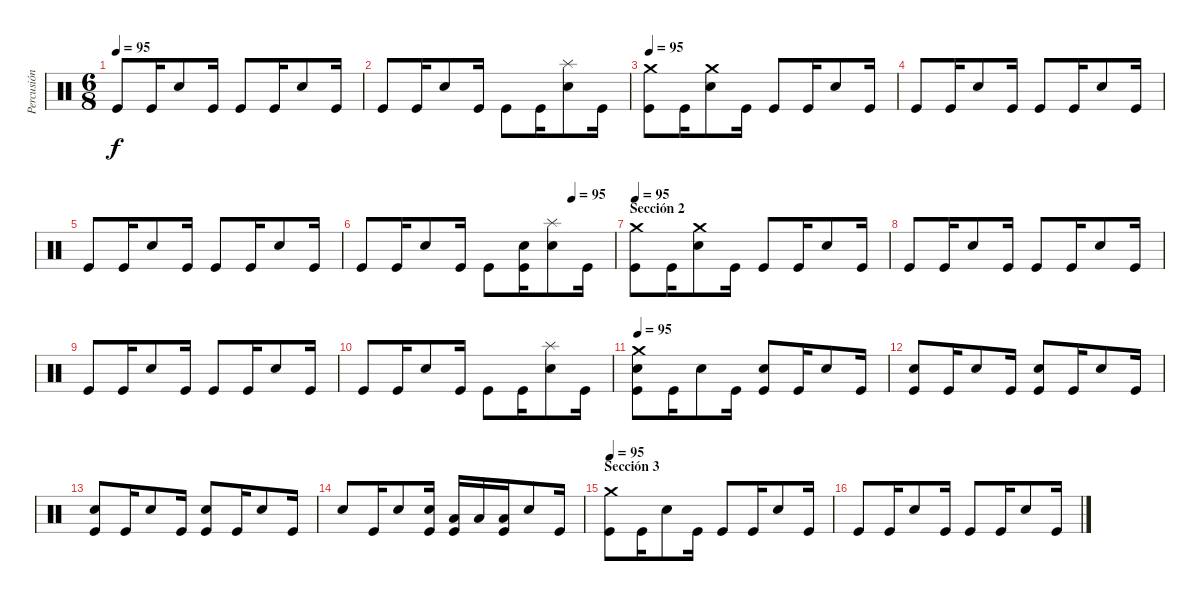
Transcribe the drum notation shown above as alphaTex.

\track ("Percusión" "Percusión") {instrument percussion}
\staff {score}
\articulation defaults
\ts (6 8)
\tempo 95
\clef neutral
\ks c "Kick (hit)".8{dy f} "Kick (hit)".16 "Electric Snare (hit)".8 "Kick (hit)".16 "Kick (hit)".8 "Kick (hit)".16 "Electric Snare (hit)".8 "Kick (hit)".16
|
"Kick (hit)".8 "Kick (hit)".16 "Electric Snare (hit)".8 "Kick (hit)".16 "Kick (hit)".8 "Kick (hit)".16 ("Splash (hit)" "Electric Snare (hit)").8 "Kick (hit)".16 |
\tempo 95
("Crash medium (hit)" "Kick (hit)").8 "Kick (hit)".16 ("Crash medium (hit)" "Electric Snare (hit)").8 "Kick (hit)".16 "Kick (hit)".8 "Kick (hit)".16 "Electric Snare (hit)".8 "Kick (hit)".16 |
"Kick (hit)".8 "Kick (hit)".16 "Electric Snare (hit)".8 "Kick (hit)".16 "Kick (hit)".8 "Kick (hit)".16 "Electric Snare (hit)".8 "Kick (hit)".16 |
"Kick (hit)".8 "Kick (hit)".16 "Electric Snare (hit)".8 "Kick (hit)".16 "Kick (hit)".8 "Kick (hit)".16 "Electric Snare (hit)".8 "Kick (hit)".16 |
\tempo (95 0.8333333333333334)
"Kick (hit)".8 "Kick (hit)".16 "Electric Snare (hit)".8 "Kick (hit)".16 "Kick (hit)".8 ("Electric Snare (hit)" "Kick (hit)").16 ("Splash (hit)" "Electric Snare (hit)").8 "Kick (hit)".16 |
\section ("" "Sección 2")
\tempo 95
("Crash medium (hit)" "Kick (hit)").8 "Kick (hit)".16 ("Crash medium (hit)" "Electric Snare (hit)").8 "Kick (hit)".16 "Kick (hit)".8 "Kick (hit)".16 "Electric Snare (hit)".8 "Kick (hit)".16 |
"Kick (hit)".8 "Kick (hit)".16 "Electric Snare (hit)".8 "Kick (hit)".16 "Kick (hit)".8 "Kick (hit)".16 "Electric Snare (hit)".8 "Kick (hit)".16 |
"Kick (hit)".8 "Kick (hit)".16 "Electric Snare (hit)".8 "Kick (hit)".16 "Kick (hit)".8 "Kick (hit)".16 "Electric Snare (hit)".8 "Kick (hit)".16 |
"Kick (hit)".8 "Kick (hit)".16 "Electric Snare (hit)".8 "Kick (hit)".16 "Kick (hit)".8 "Kick (hit)".16 ("Splash (hit)" "Electric Snare (hit)").8 "Kick (hit)".16 |
\tempo 95
("Crash medium (hit)" "Electric Snare (hit)" "Kick (hit)").8 "Kick (hit)".16 "Electric Snare (hit)".8 "Kick (hit)".16 ("Electric Snare (hit)" "Kick (hit)").8 "Kick (hit)".16 "Electric Snare (hit)".8 "Kick (hit)".16 |
("Electric Snare (hit)" "Kick (hit)").8 "Kick (hit)".16 "Electric Snare (hit)".8 "Kick (hit)".16 ("Electric Snare (hit)" "Kick (hit)").8 "Kick (hit)".16 "Electric Snare (hit)".8 "Kick (hit)".16 |
("Electric Snare (hit)" "Kick (hit)").8 "Kick (hit)".16 "Electric Snare (hit)".8 "Kick (hit)".16 ("Electric Snare (hit)" "Kick (hit)").8 "Kick (hit)".16 "Electric Snare (hit)".8 "Kick (hit)".16 |
"Electric Snare (hit)".8 "Kick (hit)".16 "Electric Snare (hit)".8 ("Electric Snare (hit)" "Kick (hit)").16 ("Low Tom (hit)" "Kick (hit)").16 "Low Tom (hit)".16 ("Low Tom (hit)" "Kick (hit)").16 "Electric Snare (hit)".8 "Kick (hit)".16 |
\section ("" "Sección 3")
\tempo 95
("Crash medium (hit)" "Kick (hit)").8 "Kick (hit)".16 "Electric Snare (hit)".8 "Kick (hit)".16 "Kick (hit)".8 "Kick (hit)".16 "Electric Snare (hit)".8 "Kick (hit)".16 |
"Kick (hit)".8 "Kick (hit)".16 "Electric Snare (hit)".8 "Kick (hit)".16 "Kick (hit)".8 "Kick (hit)".16 "Electric Snare (hit)".8 "Kick (hit)".16
